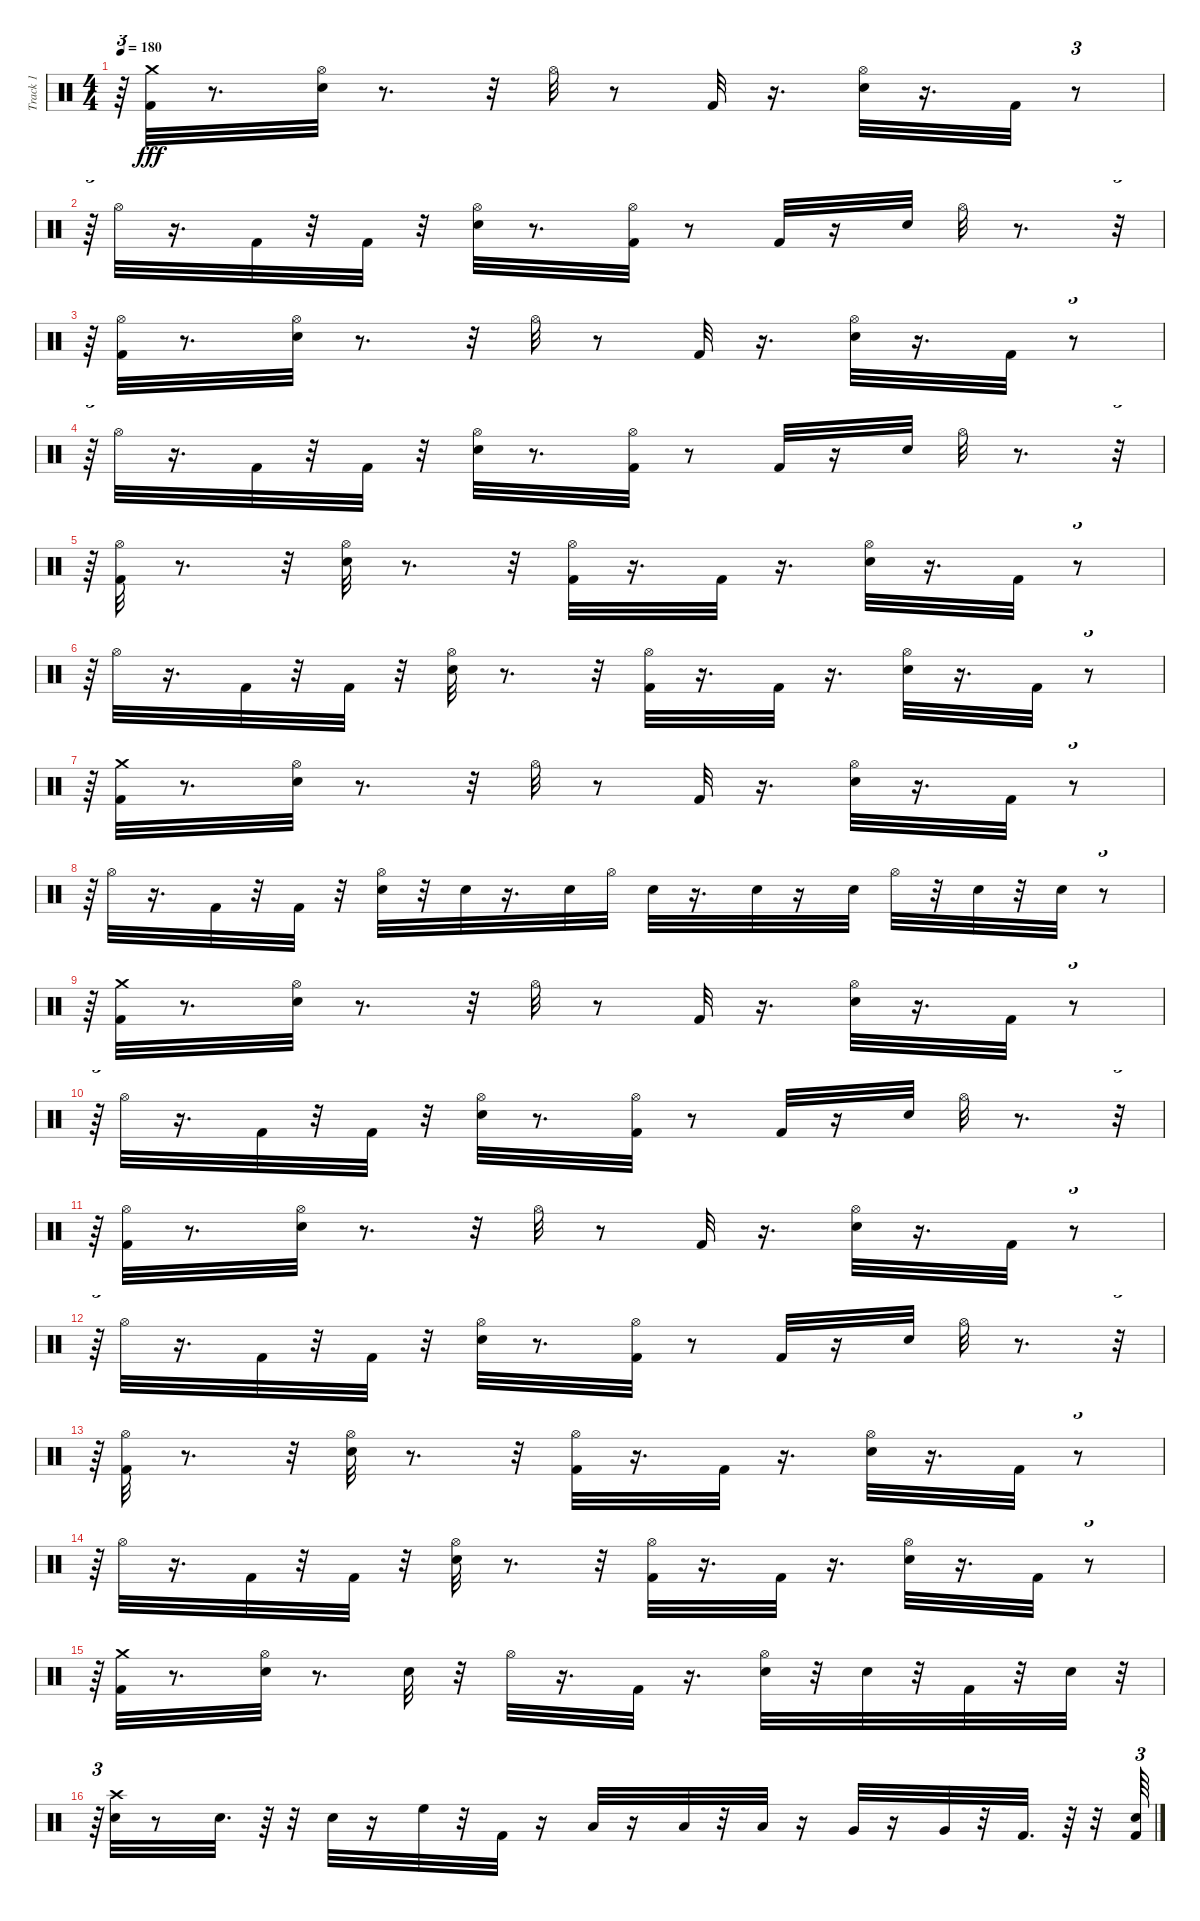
\track ("Track 1" "Track 1") {mute instrument percussion}
\staff {score}
\articulation defaults
\ts (4 4)
\tempo 180
\clef neutral
\ks c
r.64{tu (3 2) dy fff} ("Crash medium (hit)" "Kick (hit) 2").32 r.8{d} ("Snare (hit) 2" "Hi-Hat (open)").32 r.8{d} r.32 "Hi-Hat (open)".32 r.8 "Kick (hit) 2".32 r.16{d} ("Snare (hit) 2" "Hi-Hat (open)").32 r.16{d} "Kick (hit) 2".32 r.8{tu (3 2)} |
r.64{tu (3 2)} "Hi-Hat (open)".32 r.16{d} "Kick (hit) 2".32 r.32 "Kick (hit) 2".32 r.32 ("Snare (hit) 2" "Hi-Hat (open)").32 r.8{d} ("Hi-Hat (open)" "Kick (hit) 2").32 r.8 "Kick (hit) 2".32 r.16 "Snare (hit) 2".32 "Hi-Hat (open)".32 r.8{d} r.32{tu (3 2)} |
r.64{tu (3 2)} ("Hi-Hat (open)" "Kick (hit) 2").32 r.8{d} ("Snare (hit) 2" "Hi-Hat (open)").32 r.8{d} r.32 "Hi-Hat (open)".32 r.8 "Kick (hit) 2".32 r.16{d} ("Hi-Hat (open)" "Snare (hit) 2").32 r.16{d} "Kick (hit) 2".32 r.8{tu (3 2)} |
r.64{tu (3 2)} "Hi-Hat (open)".32 r.16{d} "Kick (hit) 2".32 r.32 "Kick (hit) 2".32 r.32 ("Snare (hit) 2" "Hi-Hat (open)").32 r.8{d} ("Hi-Hat (open)" "Kick (hit) 2").32 r.8 "Kick (hit) 2".32 r.16 "Snare (hit) 2".32 "Hi-Hat (open)".32 r.8{d} r.32{tu (3 2)} |
r.64{tu (3 2)} ("Hi-Hat (open)" "Kick (hit) 2").32 r.8{d} r.32 ("Hi-Hat (open)" "Snare (hit) 2").32 r.8{d} r.32 ("Hi-Hat (open)" "Kick (hit) 2").32 r.16{d} "Kick (hit) 2".32 r.16{d} ("Snare (hit) 2" "Hi-Hat (open)").32 r.16{d} "Kick (hit) 2".32 r.8{tu (3 2)} |
r.64{tu (3 2)} "Hi-Hat (open)".32 r.16{d} "Kick (hit) 2".32 r.32 "Kick (hit) 2".32 r.32 ("Snare (hit) 2" "Hi-Hat (open)").32 r.8{d} r.32 ("Hi-Hat (open)" "Kick (hit) 2").32 r.16{d} "Kick (hit) 2".32 r.16{d} ("Hi-Hat (open)" "Snare (hit) 2").32 r.16{d} "Kick (hit) 2".32 r.8{tu (3 2)} |
r.64{tu (3 2)} ("Kick (hit) 2" "Crash medium (hit)").32 r.8{d} ("Snare (hit) 2" "Hi-Hat (open)").32 r.8{d} r.32 "Hi-Hat (open)".32 r.8 "Kick (hit) 2".32 r.16{d} ("Snare (hit) 2" "Hi-Hat (open)").32 r.16{d} "Kick (hit) 2".32 r.8{tu (3 2)} |
r.64{tu (3 2)} "Hi-Hat (open)".32 r.16{d} "Kick (hit) 2".32 r.32 "Kick (hit) 2".32 r.32 ("Electric Snare (hit)" "Hi-Hat (open)").32 r.32 "Snare (hit) 2".32 r.16{d} "Snare (hit) 2".32 "Hi-Hat (open)".32 "Electric Snare (hit)".32 r.16{d} "Snare (hit) 2".32 r.16 "Electric Snare (hit)".32 "Hi-Hat (open)".32 r.32 "Snare (hit) 2".32 r.32 "Electric Snare (hit)".32 r.8{tu (3 2)} |
r.64{tu (3 2)} ("Crash medium (hit)" "Kick (hit) 2").32 r.8{d} ("Snare (hit) 2" "Hi-Hat (open)").32 r.8{d} r.32 "Hi-Hat (open)".32 r.8 "Kick (hit) 2".32 r.16{d} ("Snare (hit) 2" "Hi-Hat (open)").32 r.16{d} "Kick (hit) 2".32 r.8{tu (3 2)} |
r.64{tu (3 2)} "Hi-Hat (open)".32 r.16{d} "Kick (hit) 2".32 r.32 "Kick (hit) 2".32 r.32 ("Snare (hit) 2" "Hi-Hat (open)").32 r.8{d} ("Hi-Hat (open)" "Kick (hit) 2").32 r.8 "Kick (hit) 2".32 r.16 "Snare (hit) 2".32 "Hi-Hat (open)".32 r.8{d} r.32{tu (3 2)} |
r.64{tu (3 2)} ("Hi-Hat (open)" "Kick (hit) 2").32 r.8{d} ("Snare (hit) 2" "Hi-Hat (open)").32 r.8{d} r.32 "Hi-Hat (open)".32 r.8 "Kick (hit) 2".32 r.16{d} ("Hi-Hat (open)" "Snare (hit) 2").32 r.16{d} "Kick (hit) 2".32 r.8{tu (3 2)} |
r.64{tu (3 2)} "Hi-Hat (open)".32 r.16{d} "Kick (hit) 2".32 r.32 "Kick (hit) 2".32 r.32 ("Snare (hit) 2" "Hi-Hat (open)").32 r.8{d} ("Hi-Hat (open)" "Kick (hit) 2").32 r.8 "Kick (hit) 2".32 r.16 "Snare (hit) 2".32 "Hi-Hat (open)".32 r.8{d} r.32{tu (3 2)} |
r.64{tu (3 2)} ("Hi-Hat (open)" "Kick (hit) 2").32 r.8{d} r.32 ("Hi-Hat (open)" "Snare (hit) 2").32 r.8{d} r.32 ("Hi-Hat (open)" "Kick (hit) 2").32 r.16{d} "Kick (hit) 2".32 r.16{d} ("Snare (hit) 2" "Hi-Hat (open)").32 r.16{d} "Kick (hit) 2".32 r.8{tu (3 2)} |
r.64{tu (3 2)} "Hi-Hat (open)".32 r.16{d} "Kick (hit) 2".32 r.32 "Kick (hit) 2".32 r.32 ("Snare (hit) 2" "Hi-Hat (open)").32 r.8{d} r.32 ("Hi-Hat (open)" "Kick (hit) 2").32 r.16{d} "Kick (hit) 2".32 r.16{d} ("Hi-Hat (open)" "Snare (hit) 2").32 r.16{d} "Kick (hit) 2".32 r.8{tu (3 2)} |
r.64{tu (3 2)} ("Crash medium (hit)" "Kick (hit) 2").32 r.8{d} ("Electric Snare (hit)" "Hi-Hat (open)").32 r.8{d} "Electric Snare (hit)".32 r.32 "Hi-Hat (open)".32 r.16{d} "Kick (hit) 2".32 r.16{d} ("Electric Snare (hit)" "Hi-Hat (open)").32 r.32 "Snare (hit) 2".32 r.32 "Kick (hit) 2".32 r.32 "Snare (hit) 2".32 r.32{tu (3 2)} |
r.64{tu (3 2)} ("Electric Snare (hit)" "Crash high (hit)").32 r.8 "Snare (hit) 2".32{d} r.64 r.32 "Electric Snare (hit)".32 r.16 "High Floor Tom (hit)".32 r.32 "Kick (hit) 2".32 r.16 "Low Tom (hit)".32 r.16 "Low Tom (hit)".32 r.32 "Low Tom (hit)".32 r.16 "Very Low Tom (hit)".32 r.16 "Very Low Tom (hit)".32 r.32 "Kick (hit) 2".32{d} r.64 r.32 ("Kick (hit) 2" "Snare (hit)").64{tu (3 2)}
